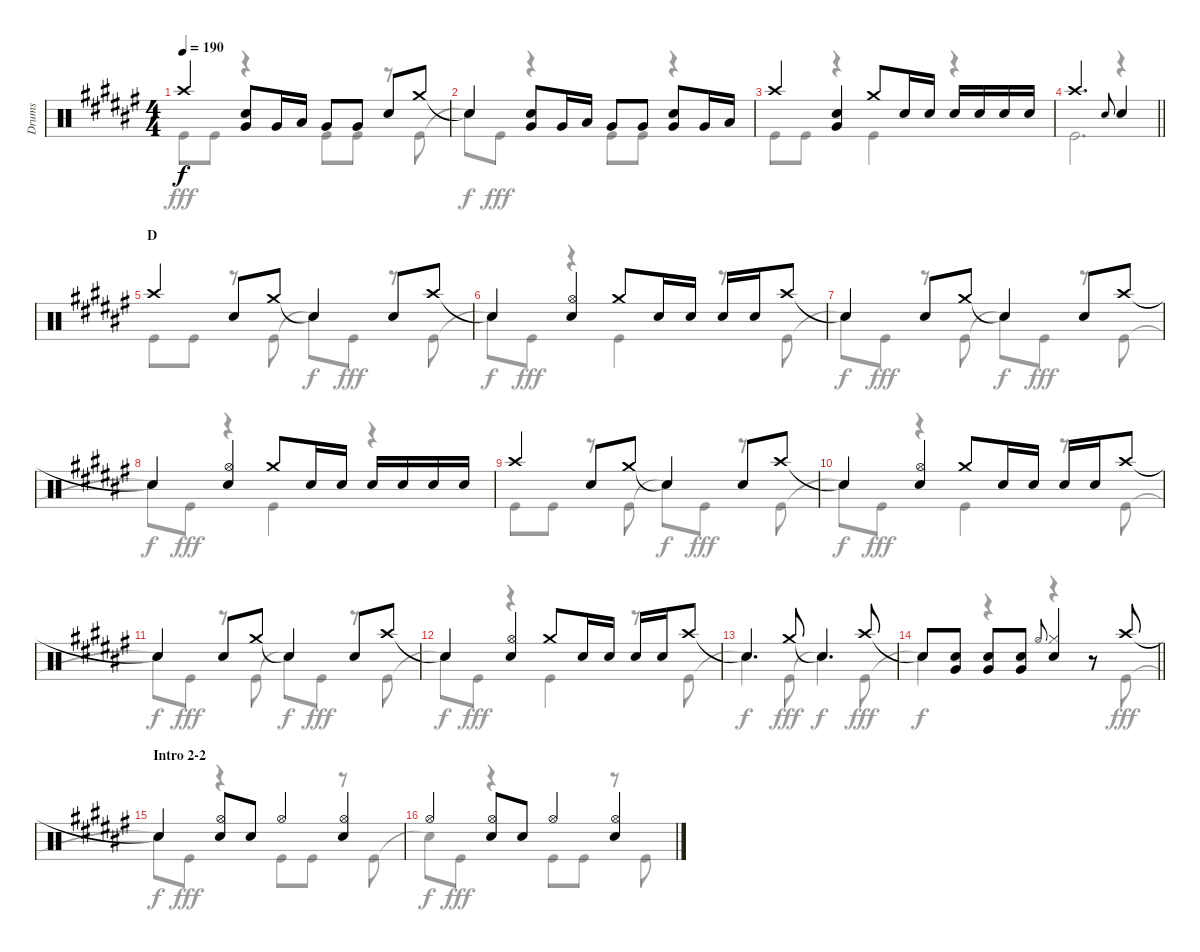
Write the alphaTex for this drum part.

\track ("Drums" "Drums") {instrument percussion}
\staff {score}
\articulation defaults
\voice
\ts (4 4)
\tempo 190
\clef neutral
\ks f# "Crash high (hit)".4{dy f}
("Snare (hit) 2" "Very Low Tom (hit)").8 "Very Low Tom (hit)".16 "Low Tom (hit)".16 "Very Low Tom (hit)".8 "Very Low Tom (hit)".8 "Snare (hit) 2".8 "Crash medium (hit)".8 |
"Snare (hit)"{t}.4 ("Snare (hit) 2" "Very Low Tom (hit)").8 "Very Low Tom (hit)".16 "Low Tom (hit)".16 "Very Low Tom (hit)".8 "Very Low Tom (hit)".8 ("Snare (hit) 2" "Very Low Tom (hit)").8 "Very Low Tom (hit)".16 "Low Tom (hit)".16 |
"Crash high (hit)".4 ("Snare (hit) 2" "Very Low Tom (hit)").4 "Crash medium (hit)".8 "Snare (hit) 2".16 "Snare (hit) 2".16 "Snare (hit) 2".16 "Snare (hit) 2".16 "Snare (hit) 2".16 "Snare (hit) 2".16 |
\barLineRight lightlight "Crash high (hit)".2{d} "Snare (hit) 2".8{gr onbeat} "Snare (hit) 2".4
|
\section ("" "D")
"Crash high (hit)".4 "Snare (hit) 2".8 "Crash medium (hit)".8 "Snare (hit)"{t}.4 "Snare (hit) 2".8 "Crash high (hit)".8 |
"Snare (hit)"{t}.4 ("Hi-Hat (open)" "Snare (hit) 2").4 "Crash medium (hit)".8 "Snare (hit) 2".16 "Snare (hit) 2".16 "Snare (hit) 2".16 "Snare (hit) 2".16 "Crash high (hit)".8 |
"Snare (hit)"{t}.4 "Snare (hit) 2".8 "Crash medium (hit)".8 "Snare (hit)"{t}.4 "Snare (hit) 2".8 "Crash high (hit)".8 |
"Snare (hit)"{t}.4 ("Hi-Hat (open)" "Snare (hit) 2").4 "Crash medium (hit)".8 "Snare (hit) 2".16 "Snare (hit) 2".16 "Snare (hit) 2".16 "Snare (hit) 2".16 "Snare (hit) 2".16 "Snare (hit) 2".16 |
"Crash high (hit)".4 "Snare (hit) 2".8 "Crash medium (hit)".8 "Snare (hit)"{t}.4 "Snare (hit) 2".8 "Crash high (hit)".8 |
"Snare (hit)"{t}.4 ("Hi-Hat (open)" "Snare (hit) 2").4 "Crash medium (hit)".8 "Snare (hit) 2".16 "Snare (hit) 2".16 "Snare (hit) 2".16 "Snare (hit) 2".16 "Crash high (hit)".8 |
"Snare (hit)"{t}.4 "Snare (hit) 2".8 "Crash medium (hit)".8 "Snare (hit)"{t}.4 "Snare (hit) 2".8 "Crash high (hit)".8 |
"Snare (hit)"{t}.4 ("Hi-Hat (open)" "Snare (hit) 2").4 "Crash medium (hit)".8 "Snare (hit) 2".16 "Snare (hit) 2".16 "Snare (hit) 2".16 "Snare (hit) 2".16 "Crash high (hit)".8 |
"Snare (hit)"{t}.4{d} "Crash medium (hit)".8 "Snare (hit)"{t}.4{d} "Crash high (hit)".8 |
\barLineRight lightlight "Snare (hit)"{t}.8
("Snare (hit) 2" "Very Low Tom (hit)").8 ("Snare (hit) 2" "Very Low Tom (hit)").8 ("Snare (hit) 2" "Very Low Tom (hit)").8 "Hi-Hat (open)".8{gr onbeat} ("Hi-Hat (closed)" "Snare (hit) 2").4 r.8 "Crash high (hit)".8 |
\section ("" "Intro 2-2")
"Snare (hit)"{t}.4 ("Hi-Hat (open)" "Snare (hit) 2").8 "Snare (hit) 2".8 "Hi-Hat (open)".4 ("Hi-Hat (open)" "Snare (hit) 2").4 |
"Hi-Hat (open)".4 ("Hi-Hat (open)" "Snare (hit) 2").8 "Snare (hit) 2".8 "Hi-Hat (open)".4 ("Hi-Hat (open)" "Snare (hit) 2").4
\voice
\clef neutral
\ottava regular
\simile none
\ks f# "Kick (hit)".8{dy fff} "Kick (hit)".8
r.4 "Kick (hit)".8 "Kick (hit)".8 r.8 "Kick (hit)".8 |
"Snare (hit)"{t}.8{dy f} "Kick (hit)".8{dy fff} r.4 "Kick (hit)".8 "Kick (hit)".8 r.4 |
"Kick (hit)".8 "Kick (hit)".8 r.4 "Kick (hit)".4 r.4 |
\barLineRight lightlight "Kick (hit)".2{d}
r.4 |
"Kick (hit)".8 "Kick (hit)".8 r.8 "Kick (hit)".8 "Snare (hit)"{t}.8{dy f} "Kick (hit)".8{dy fff} r.8 "Kick (hit)".8 |
"Snare (hit)"{t}.8{dy f} "Kick (hit)".8{dy fff} r.4 "Kick (hit)".4 r.8 "Kick (hit)".8 |
"Snare (hit)"{t}.8{dy f} "Kick (hit)".8{dy fff} r.8 "Kick (hit)".8 "Snare (hit)"{t}.8{dy f} "Kick (hit)".8{dy fff} r.8 "Kick (hit)".8 |
"Snare (hit)"{t}.8{dy f} "Kick (hit)".8{dy fff} r.4 "Kick (hit)".4 r.4 |
"Kick (hit)".8 "Kick (hit)".8 r.8 "Kick (hit)".8 "Snare (hit)"{t}.8{dy f} "Kick (hit)".8{dy fff} r.8 "Kick (hit)".8 |
"Snare (hit)"{t}.8{dy f} "Kick (hit)".8{dy fff} r.4 "Kick (hit)".4 r.8 "Kick (hit)".8 |
"Snare (hit)"{t}.8{dy f} "Kick (hit)".8{dy fff} r.8 "Kick (hit)".8 "Snare (hit)"{t}.8{dy f} "Kick (hit)".8{dy fff} r.8 "Kick (hit)".8 |
"Snare (hit)"{t}.8{dy f} "Kick (hit)".8{dy fff} r.4 "Kick (hit)".4 r.8 "Kick (hit)".8 |
"Snare (hit)"{t}.4{d dy f} "Kick (hit)".8{dy fff} "Snare (hit)"{t}.4{d dy f} "Kick (hit)".8{dy fff} |
\barLineRight lightlight "Snare (hit)"{t}.4{dy f}
r.4 r.4 r.8 "Kick (hit)".8{dy fff} |
"Snare (hit)"{t}.8{dy f} "Kick (hit)".8{dy fff} r.4 "Kick (hit)".8 "Kick (hit)".8 r.8 "Kick (hit)".8 |
"Snare (hit)"{t}.8{dy f} "Kick (hit)".8{dy fff} r.4 "Kick (hit)".8 "Kick (hit)".8 r.8 "Kick (hit)".8
